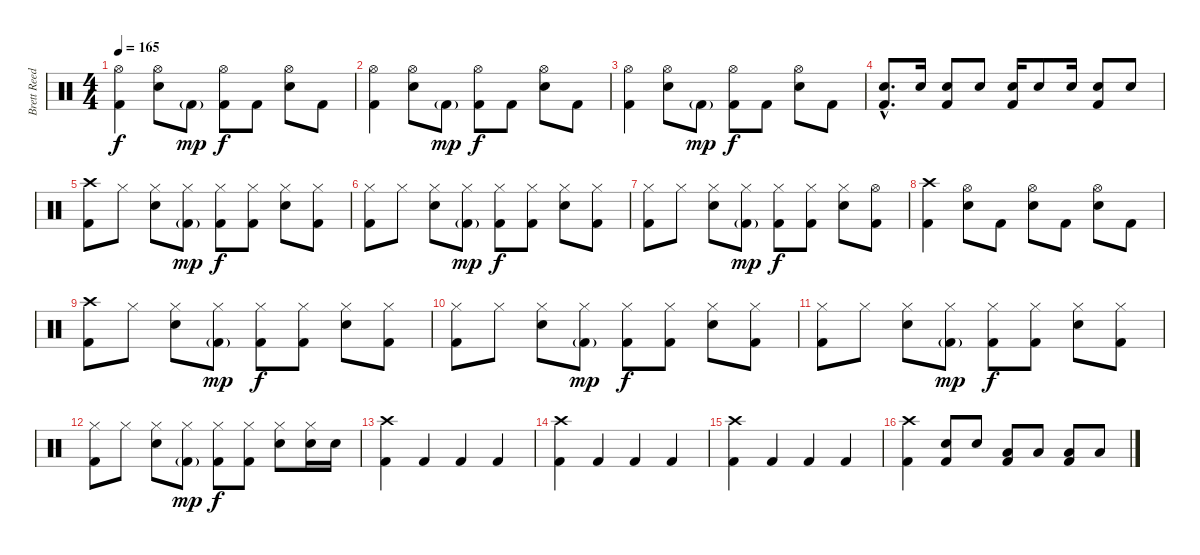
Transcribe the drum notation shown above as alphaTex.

\track ("Brett Reed - Drums" "Brett Reed") {instrument percussion}
\staff {score}
\articulation defaults
\ts (4 4)
\tempo 165
\clef neutral
\ks c
("Hi-Hat (open)" "Kick (hit) 2").4{dy f} ("Hi-Hat (open)" "Electric Snare (hit)").8 "Kick (hit) 2"{g}.8{dy mp} ("Hi-Hat (open)" "Kick (hit) 2").8{dy f} "Kick (hit) 2".8 ("Hi-Hat (open)" "Electric Snare (hit)").8 "Kick (hit) 2".8 |
("Hi-Hat (open)" "Kick (hit) 2").4 ("Hi-Hat (open)" "Electric Snare (hit)").8 "Kick (hit) 2"{g}.8{dy mp} ("Hi-Hat (open)" "Kick (hit) 2").8{dy f} "Kick (hit) 2".8 ("Hi-Hat (open)" "Electric Snare (hit)").8 "Kick (hit) 2".8 |
("Hi-Hat (open)" "Kick (hit) 2").4 ("Hi-Hat (open)" "Electric Snare (hit)").8 "Kick (hit) 2"{g}.8{dy mp} ("Hi-Hat (open)" "Kick (hit) 2").8{dy f} "Kick (hit) 2".8 ("Hi-Hat (open)" "Electric Snare (hit)").8 "Kick (hit) 2".8 |
("Electric Snare (hit)"{hac} "Kick (hit) 2"{hac}).8{d} "Electric Snare (hit)".16 ("Electric Snare (hit)" "Kick (hit) 2").8 "Electric Snare (hit)".8 ("Electric Snare (hit)" "Kick (hit) 2").16 "Electric Snare (hit)".8 "Electric Snare (hit)".16 ("Electric Snare (hit)" "Kick (hit) 2").8 "Electric Snare (hit)".8 |
("Crash high (hit)" "Kick (hit) 2").8 "Hi-Hat (closed)".8 ("Hi-Hat (closed)" "Electric Snare (hit)").8 ("Hi-Hat (closed)" "Kick (hit) 2"{g}).8{dy mp} ("Hi-Hat (closed)" "Kick (hit) 2").8{dy f} ("Hi-Hat (closed)" "Kick (hit) 2").8 ("Hi-Hat (closed)" "Electric Snare (hit)").8 ("Hi-Hat (closed)" "Kick (hit) 2").8 |
("Hi-Hat (closed)" "Kick (hit) 2").8 "Hi-Hat (closed)".8 ("Hi-Hat (closed)" "Electric Snare (hit)").8 ("Hi-Hat (closed)" "Kick (hit) 2"{g}).8{dy mp} ("Hi-Hat (closed)" "Kick (hit) 2").8{dy f} ("Hi-Hat (closed)" "Kick (hit) 2").8 ("Hi-Hat (closed)" "Electric Snare (hit)").8 ("Hi-Hat (closed)" "Kick (hit) 2").8 |
("Hi-Hat (closed)" "Kick (hit) 2").8 "Hi-Hat (closed)".8 ("Hi-Hat (closed)" "Electric Snare (hit)").8 ("Hi-Hat (closed)" "Kick (hit) 2"{g}).8{dy mp} ("Hi-Hat (closed)" "Kick (hit) 2").8{dy f} ("Hi-Hat (closed)" "Kick (hit) 2").8 ("Hi-Hat (closed)" "Electric Snare (hit)").8 ("Hi-Hat (open)" "Kick (hit) 2").8 |
("Crash high (hit)" "Kick (hit) 2").4 ("Hi-Hat (open)" "Electric Snare (hit)").8 "Kick (hit) 2".8 ("Hi-Hat (open)" "Electric Snare (hit)").8 "Kick (hit) 2".8 ("Hi-Hat (open)" "Electric Snare (hit)").8 "Kick (hit) 2".8 |
("Crash high (hit)" "Kick (hit) 2").8 "Hi-Hat (closed)".8 ("Hi-Hat (closed)" "Electric Snare (hit)").8 ("Hi-Hat (closed)" "Kick (hit) 2"{g}).8{dy mp} ("Hi-Hat (closed)" "Kick (hit) 2").8{dy f} ("Hi-Hat (closed)" "Kick (hit) 2").8 ("Hi-Hat (closed)" "Electric Snare (hit)").8 ("Hi-Hat (closed)" "Kick (hit) 2").8 |
("Hi-Hat (closed)" "Kick (hit) 2").8 "Hi-Hat (closed)".8 ("Hi-Hat (closed)" "Electric Snare (hit)").8 ("Hi-Hat (closed)" "Kick (hit) 2"{g}).8{dy mp} ("Hi-Hat (closed)" "Kick (hit) 2").8{dy f} ("Hi-Hat (closed)" "Kick (hit) 2").8 ("Hi-Hat (closed)" "Electric Snare (hit)").8 ("Hi-Hat (closed)" "Kick (hit) 2").8 |
("Hi-Hat (closed)" "Kick (hit) 2").8 "Hi-Hat (closed)".8 ("Hi-Hat (closed)" "Electric Snare (hit)").8 ("Hi-Hat (closed)" "Kick (hit) 2"{g}).8{dy mp} ("Hi-Hat (closed)" "Kick (hit) 2").8{dy f} ("Hi-Hat (closed)" "Kick (hit) 2").8 ("Hi-Hat (closed)" "Electric Snare (hit)").8 ("Hi-Hat (closed)" "Kick (hit) 2").8 |
("Hi-Hat (closed)" "Kick (hit) 2").8 "Hi-Hat (closed)".8 ("Hi-Hat (closed)" "Electric Snare (hit)").8 ("Hi-Hat (closed)" "Kick (hit) 2"{g}).8{dy mp} ("Hi-Hat (closed)" "Kick (hit) 2").8{dy f} ("Hi-Hat (closed)" "Kick (hit) 2").8 ("Hi-Hat (closed)" "Electric Snare (hit)").8 ("Hi-Hat (closed)" "Electric Snare (hit)").16 "Electric Snare (hit)".16 |
("Crash high (hit)" "Kick (hit) 2").4 "Kick (hit) 2".4 "Kick (hit) 2".4 "Kick (hit) 2".4 |
("Crash high (hit)" "Kick (hit) 2").4 "Kick (hit) 2".4 "Kick (hit) 2".4 "Kick (hit) 2".4 |
("Crash high (hit)" "Kick (hit) 2").4 "Kick (hit) 2".4 "Kick (hit) 2".4 "Kick (hit) 2".4 |
("Crash high (hit)" "Kick (hit) 2").4 ("Electric Snare (hit)" "Kick (hit) 2").8 "Electric Snare (hit)".8 ("Low Tom (hit)" "Kick (hit) 2").8 "Low Tom (hit)".8 ("Low Tom (hit)" "Kick (hit) 2").8 "Low Tom (hit)".8
